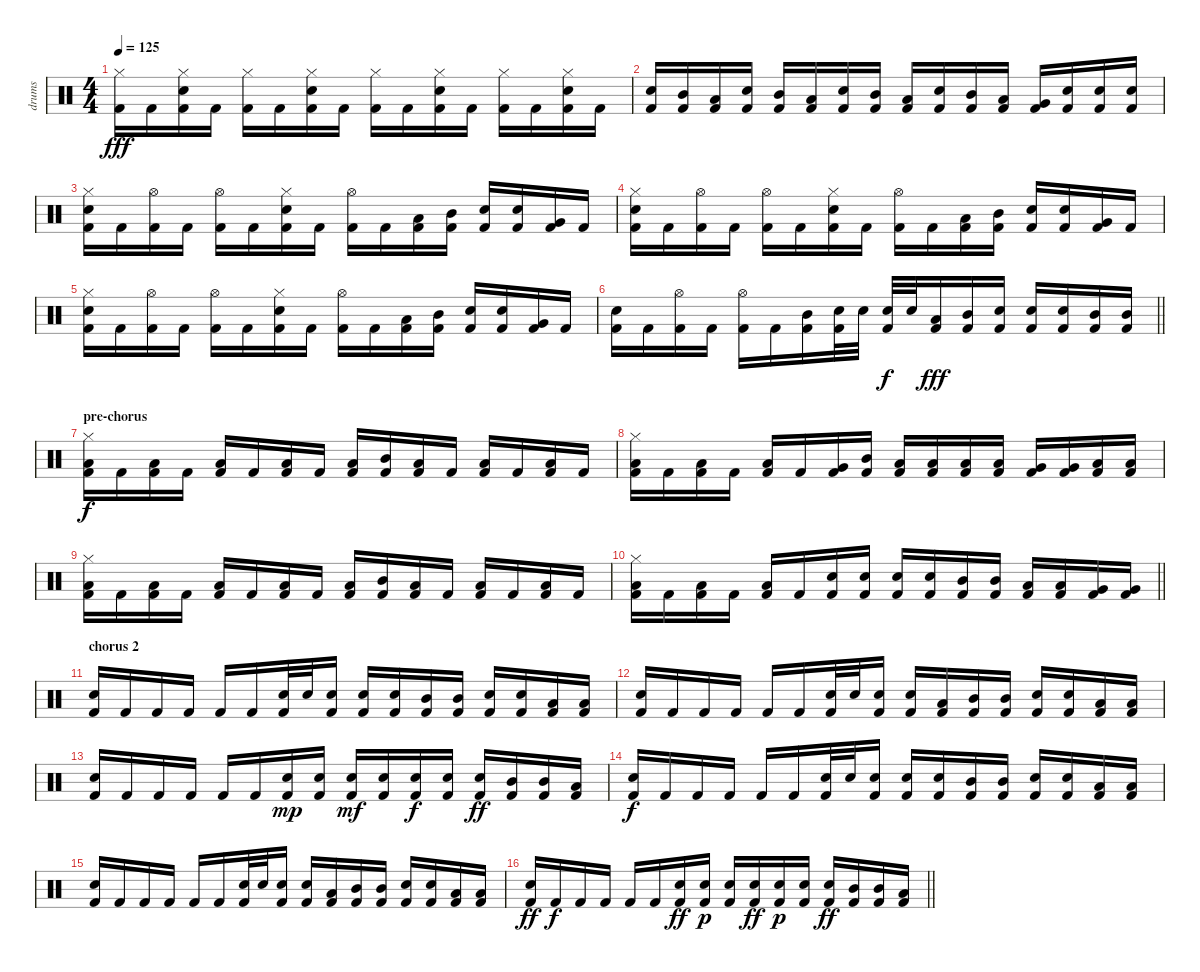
\track ("drums" "drums") {instrument percussion}
\staff {score}
\articulation defaults
\ts (4 4)
\tempo 125
\clef neutral
\ks c
("Hi-Hat (closed)" "Kick (hit) 2").16{dy fff} "Kick (hit) 2".16 ("Electric Snare (hit)" "Hi-Hat (closed)" "Kick (hit) 2").16 "Kick (hit) 2".16 ("Hi-Hat (closed)" "Kick (hit) 2").16 "Kick (hit) 2".16 ("Electric Snare (hit)" "Hi-Hat (closed)" "Kick (hit) 2").16 "Kick (hit) 2".16 ("Hi-Hat (closed)" "Kick (hit) 2").16 "Kick (hit) 2".16 ("Electric Snare (hit)" "Hi-Hat (closed)" "Kick (hit) 2").16 "Kick (hit) 2".16 ("Hi-Hat (closed)" "Kick (hit) 2").16 "Kick (hit) 2".16 ("Electric Snare (hit)" "Hi-Hat (closed)" "Kick (hit) 2").16 "Kick (hit) 2".16 |
("Electric Snare (hit)" "Kick (hit) 2").16 ("Mid Tom (hit)" "Kick (hit) 2").16 ("Low Tom (hit)" "Kick (hit) 2").16 ("Electric Snare (hit)" "Kick (hit) 2").16 ("Mid Tom (hit)" "Kick (hit) 2").16 ("Low Tom (hit)" "Kick (hit) 2").16 ("Electric Snare (hit)" "Kick (hit) 2").16 ("Mid Tom (hit)" "Kick (hit) 2").16 ("Low Tom (hit)" "Kick (hit) 2").16 ("Electric Snare (hit)" "Kick (hit) 2").16 ("Mid Tom (hit)" "Kick (hit) 2").16 ("Low Tom (hit)" "Kick (hit) 2").16 ("Very Low Tom (hit)" "Kick (hit) 2").16 ("Electric Snare (hit)" "Kick (hit) 2").16 ("Electric Snare (hit)" "Kick (hit) 2").16 ("Electric Snare (hit)" "Kick (hit) 2").16 |
("Electric Snare (hit)" "Hi-Hat (closed)" "Kick (hit) 2").16 "Kick (hit) 2".16 ("Hi-Hat (open)" "Kick (hit) 2").16 "Kick (hit) 2".16 ("Hi-Hat (open)" "Kick (hit) 2").16 "Kick (hit) 2".16 ("Electric Snare (hit)" "Hi-Hat (closed)" "Kick (hit) 2").16 "Kick (hit) 2".16 ("Hi-Hat (open)" "Kick (hit) 2").16 "Kick (hit) 2".16 ("Low Tom (hit)" "Kick (hit) 2").16 ("Mid Tom (hit)" "Kick (hit) 2").16 ("Electric Snare (hit)" "Kick (hit) 2").16 ("Electric Snare (hit)" "Kick (hit) 2").16 ("Very Low Tom (hit)" "Kick (hit) 2").16 "Kick (hit) 2".16 |
("Electric Snare (hit)" "Hi-Hat (closed)" "Kick (hit) 2").16 "Kick (hit) 2".16 ("Hi-Hat (open)" "Kick (hit) 2").16 "Kick (hit) 2".16 ("Hi-Hat (open)" "Kick (hit) 2").16 "Kick (hit) 2".16 ("Electric Snare (hit)" "Hi-Hat (closed)" "Kick (hit) 2").16 "Kick (hit) 2".16 ("Hi-Hat (open)" "Kick (hit) 2").16 "Kick (hit) 2".16 ("Low Tom (hit)" "Kick (hit) 2").16 ("Mid Tom (hit)" "Kick (hit) 2").16 ("Electric Snare (hit)" "Kick (hit) 2").16 ("Electric Snare (hit)" "Kick (hit) 2").16 ("Very Low Tom (hit)" "Kick (hit) 2").16 "Kick (hit) 2".16 |
("Electric Snare (hit)" "Hi-Hat (closed)" "Kick (hit) 2").16 "Kick (hit) 2".16 ("Hi-Hat (open)" "Kick (hit) 2").16 "Kick (hit) 2".16 ("Hi-Hat (open)" "Kick (hit) 2").16 "Kick (hit) 2".16 ("Electric Snare (hit)" "Hi-Hat (closed)" "Kick (hit) 2").16 "Kick (hit) 2".16 ("Hi-Hat (open)" "Kick (hit) 2").16 "Kick (hit) 2".16 ("Low Tom (hit)" "Kick (hit) 2").16 ("Mid Tom (hit)" "Kick (hit) 2").16 ("Electric Snare (hit)" "Kick (hit) 2").16 ("Electric Snare (hit)" "Kick (hit) 2").16 ("Very Low Tom (hit)" "Kick (hit) 2").16 "Kick (hit) 2".16 |
\barLineRight lightlight
("Electric Snare (hit)" "Kick (hit) 2").16 "Kick (hit) 2".16 ("Hi-Hat (open)" "Kick (hit) 2").16 "Kick (hit) 2".16 ("Hi-Hat (open)" "Kick (hit) 2").16 "Kick (hit) 2".16 ("Mid Tom (hit)" "Kick (hit) 2").16 ("Electric Snare (hit)" "Kick (hit) 2").32 "Electric Snare (hit)".32 ("Electric Snare (hit)" "Kick (hit) 2").32{dy f} "Electric Snare (hit)".32 ("Low Tom (hit)" "Kick (hit) 2").16{dy fff} ("Mid Tom (hit)" "Kick (hit) 2").16 ("Electric Snare (hit)" "Kick (hit) 2").16 ("Electric Snare (hit)" "Kick (hit) 2").16 ("Electric Snare (hit)" "Kick (hit) 2").16 ("Mid Tom (hit)" "Kick (hit) 2").16 ("Mid Tom (hit)" "Kick (hit) 2").16 |
\section ("" "pre-chorus")
("Hi-Hat (closed)" "Low Tom (hit)" "Kick (hit) 2").16{dy f} "Kick (hit) 2".16 ("Low Tom (hit)" "Kick (hit) 2").16 "Kick (hit) 2".16 ("Low Tom (hit)" "Kick (hit) 2").16 "Kick (hit) 2".16 ("Low Tom (hit)" "Kick (hit) 2").16 "Kick (hit) 2".16 ("Low Tom (hit)" "Kick (hit) 2").16 ("Mid Tom (hit)" "Kick (hit) 2").16 ("Low Tom (hit)" "Kick (hit) 2").16 "Kick (hit) 2".16 ("Low Tom (hit)" "Kick (hit) 2").16 "Kick (hit) 2".16 ("Low Tom (hit)" "Kick (hit) 2").16 "Kick (hit) 2".16 |
("Hi-Hat (closed)" "Low Tom (hit)" "Kick (hit) 2").16 "Kick (hit) 2".16 ("Low Tom (hit)" "Kick (hit) 2").16 "Kick (hit) 2".16 ("Low Tom (hit)" "Kick (hit) 2").16 "Kick (hit) 2".16 ("Very Low Tom (hit)" "Kick (hit) 2").16 ("Mid Tom (hit)" "Kick (hit) 2").16 ("Low Tom (hit)" "Kick (hit) 2").16 ("Low Tom (hit)" "Kick (hit) 2").16 ("Low Tom (hit)" "Kick (hit) 2").16 ("Low Tom (hit)" "Kick (hit) 2").16 ("Very Low Tom (hit)" "Kick (hit) 2").16 ("Very Low Tom (hit)" "Kick (hit) 2").16 ("Low Floor Tom (hit)" "Kick (hit) 2").16 ("Low Floor Tom (hit)" "Kick (hit) 2").16 |
("Hi-Hat (closed)" "Low Tom (hit)" "Kick (hit) 2").16 "Kick (hit) 2".16 ("Low Tom (hit)" "Kick (hit) 2").16 "Kick (hit) 2".16 ("Low Tom (hit)" "Kick (hit) 2").16 "Kick (hit) 2".16 ("Low Tom (hit)" "Kick (hit) 2").16 "Kick (hit) 2".16 ("Low Tom (hit)" "Kick (hit) 2").16 ("Mid Tom (hit)" "Kick (hit) 2").16 ("Low Tom (hit)" "Kick (hit) 2").16 "Kick (hit) 2".16 ("Low Tom (hit)" "Kick (hit) 2").16 "Kick (hit) 2".16 ("Low Tom (hit)" "Kick (hit) 2").16 "Kick (hit) 2".16 |
\barLineRight lightlight
("Hi-Hat (closed)" "Low Tom (hit)" "Kick (hit) 2").16 "Kick (hit) 2".16 ("Low Tom (hit)" "Kick (hit) 2").16 "Kick (hit) 2".16 ("Low Tom (hit)" "Kick (hit) 2").16 "Kick (hit) 2".16 ("Electric Snare (hit)" "Kick (hit) 2").16 ("Electric Snare (hit)" "Kick (hit) 2").16 ("Electric Snare (hit)" "Kick (hit) 2").16 ("Electric Snare (hit)" "Kick (hit) 2").16 ("Mid Tom (hit)" "Kick (hit) 2").16 ("Mid Tom (hit)" "Kick (hit) 2").16 ("Low Tom (hit)" "Kick (hit) 2").16 ("Low Tom (hit)" "Kick (hit) 2").16 ("Very Low Tom (hit)" "Kick (hit) 2").16 ("Very Low Tom (hit)" "Kick (hit) 2").16 |
\section ("" "chorus 2")
("Electric Snare (hit)" "Kick (hit) 2").16 "Kick (hit) 2".16 "Kick (hit) 2".16 "Kick (hit) 2".16 "Kick (hit) 2".16 "Kick (hit) 2".16 ("Electric Snare (hit)" "Kick (hit) 2").32 "Electric Snare (hit)".32 ("Electric Snare (hit)" "Kick (hit) 2").16 ("Electric Snare (hit)" "Kick (hit) 2").16 ("Electric Snare (hit)" "Kick (hit) 2").16 ("Mid Tom (hit)" "Kick (hit) 2").16 ("Mid Tom (hit)" "Kick (hit) 2").16 ("Electric Snare (hit)" "Kick (hit) 2").16 ("Electric Snare (hit)" "Kick (hit) 2").16 ("Low Tom (hit)" "Kick (hit) 2").16 ("Low Tom (hit)" "Kick (hit) 2").16 |
("Electric Snare (hit)" "Kick (hit) 2").16 "Kick (hit) 2".16 "Kick (hit) 2".16 "Kick (hit) 2".16 "Kick (hit) 2".16 "Kick (hit) 2".16 ("Electric Snare (hit)" "Kick (hit) 2").32 "Electric Snare (hit)".32 ("Electric Snare (hit)" "Kick (hit) 2").16 ("Electric Snare (hit)" "Kick (hit) 2").16 ("Low Tom (hit)" "Kick (hit) 2").16 ("Mid Tom (hit)" "Kick (hit) 2").16 ("Mid Tom (hit)" "Kick (hit) 2").16 ("Electric Snare (hit)" "Kick (hit) 2").16 ("Electric Snare (hit)" "Kick (hit) 2").16 ("Low Tom (hit)" "Kick (hit) 2").16 ("Low Tom (hit)" "Kick (hit) 2").16 |
("Electric Snare (hit)" "Kick (hit) 2").16 "Kick (hit) 2".16 "Kick (hit) 2".16 "Kick (hit) 2".16 "Kick (hit) 2".16 "Kick (hit) 2".16 ("Electric Snare (hit)" "Kick (hit) 2").16{dy mp} ("Electric Snare (hit)" "Kick (hit) 2").16 ("Electric Snare (hit)" "Kick (hit) 2").16{dy mf} ("Electric Snare (hit)" "Kick (hit) 2").16 ("Electric Snare (hit)" "Kick (hit) 2").16{dy f} ("Electric Snare (hit)" "Kick (hit) 2").16 ("Electric Snare (hit)" "Kick (hit) 2").16{dy ff} ("Mid Tom (hit)" "Kick (hit) 2").16 ("Mid Tom (hit)" "Kick (hit) 2").16 ("Low Tom (hit)" "Kick (hit) 2").16 |
("Electric Snare (hit)" "Kick (hit) 2").16{dy f} "Kick (hit) 2".16 "Kick (hit) 2".16 "Kick (hit) 2".16 "Kick (hit) 2".16 "Kick (hit) 2".16 ("Electric Snare (hit)" "Kick (hit) 2").32 "Electric Snare (hit)".32 ("Electric Snare (hit)" "Kick (hit) 2").16 ("Electric Snare (hit)" "Kick (hit) 2").16 ("Electric Snare (hit)" "Kick (hit) 2").16 ("Mid Tom (hit)" "Kick (hit) 2").16 ("Mid Tom (hit)" "Kick (hit) 2").16 ("Electric Snare (hit)" "Kick (hit) 2").16 ("Electric Snare (hit)" "Kick (hit) 2").16 ("Low Tom (hit)" "Kick (hit) 2").16 ("Low Tom (hit)" "Kick (hit) 2").16 |
("Electric Snare (hit)" "Kick (hit) 2").16 "Kick (hit) 2".16 "Kick (hit) 2".16 "Kick (hit) 2".16 "Kick (hit) 2".16 "Kick (hit) 2".16 ("Electric Snare (hit)" "Kick (hit) 2").32 "Electric Snare (hit)".32 ("Electric Snare (hit)" "Kick (hit) 2").16 ("Electric Snare (hit)" "Kick (hit) 2").16 ("Low Tom (hit)" "Kick (hit) 2").16 ("Mid Tom (hit)" "Kick (hit) 2").16 ("Mid Tom (hit)" "Kick (hit) 2").16 ("Electric Snare (hit)" "Kick (hit) 2").16 ("Electric Snare (hit)" "Kick (hit) 2").16 ("Low Tom (hit)" "Kick (hit) 2").16 ("Low Tom (hit)" "Kick (hit) 2").16 |
\barLineRight lightlight
("Electric Snare (hit)" "Kick (hit) 2").16{dy ff} "Kick (hit) 2".16{dy f} "Kick (hit) 2".16 "Kick (hit) 2".16 "Kick (hit) 2".16 "Kick (hit) 2".16 ("Electric Snare (hit)" "Kick (hit) 2").16{dy ff} ("Electric Snare (hit)" "Kick (hit) 2").16{dy p} ("Electric Snare (hit)" "Kick (hit) 2").16 ("Electric Snare (hit)" "Kick (hit) 2").16{dy ff} ("Electric Snare (hit)" "Kick (hit) 2").16{dy p} ("Electric Snare (hit)" "Kick (hit) 2").16 ("Electric Snare (hit)" "Kick (hit) 2").16{dy ff} ("Mid Tom (hit)" "Kick (hit) 2").16 ("Mid Tom (hit)" "Kick (hit) 2").16 ("Low Tom (hit)" "Kick (hit) 2").16
